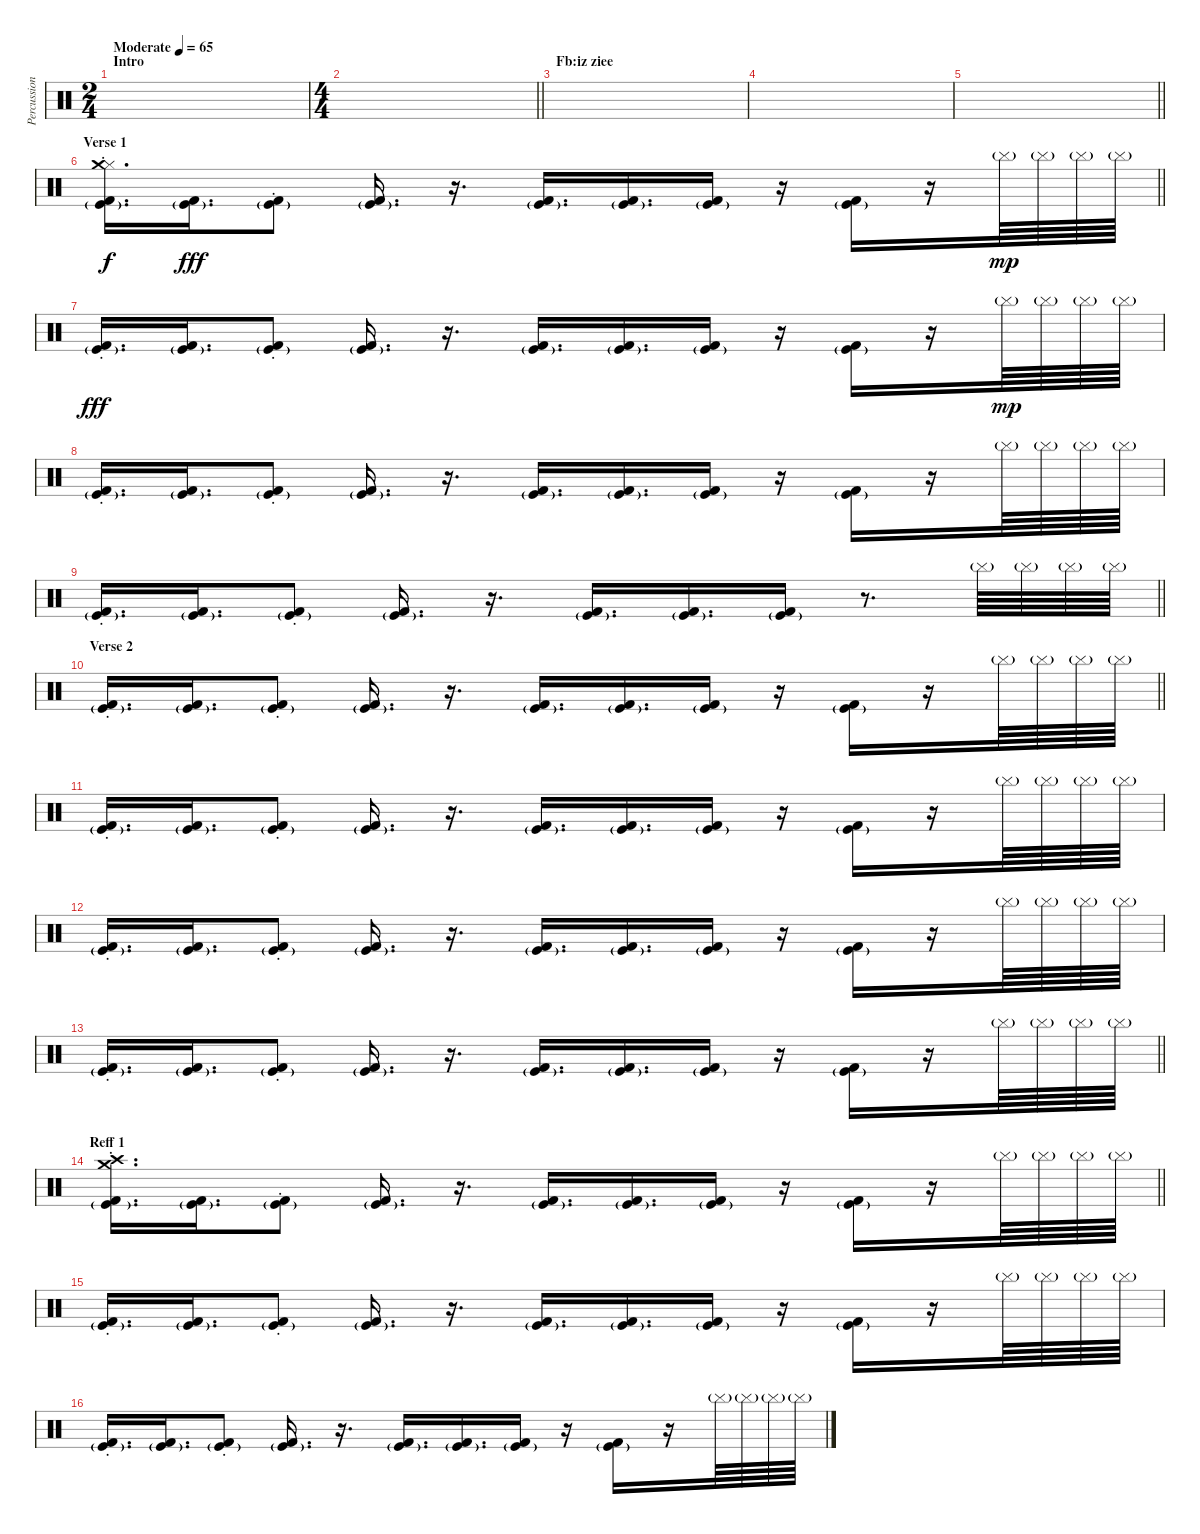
\track ("Percussion 1 (Bass)" "Percussion") {instrument percussion}
\staff {score}
\articulation defaults
\ts (2 4)
\section ("" "Intro")
\tempo (65 "Moderate")
\clef neutral
\ks c
|
\ts (4 4)
\barLineRight lightlight
|
\section ("" "Fb:iz ziee")
|
|
\barLineRight lightlight
|
\section ("" "Verse 1")
\barLineRight lightlight
("Hi-Hat (closed)" "Kick (hit)"{g st} "Kick (hit) 2" "Crash medium (hit)").16{d} ("Kick (hit)"{g} "Kick (hit) 2").16{d dy fff} ("Kick (hit)"{g} "Kick (hit) 2"{st}).8 ("Kick (hit)"{g} "Kick (hit) 2").16{d} r.16{d} ("Kick (hit)"{g} "Kick (hit) 2").16{d} ("Kick (hit)"{g} "Kick (hit) 2").16{d} ("Kick (hit)"{g} "Kick (hit) 2").16 r.16 ("Kick (hit)"{g} "Kick (hit) 2").16 r.16 "Cymbal (hit)"{g}.64{dy mp} "Cymbal (hit)"{g}.64 "Cymbal (hit)"{g}.64 "Cymbal (hit)"{g}.64 |
("Kick (hit)"{g st} "Kick (hit) 2").16{d dy fff} ("Kick (hit)"{g} "Kick (hit) 2").16{d} ("Kick (hit)"{g} "Kick (hit) 2"{st}).8 ("Kick (hit)"{g} "Kick (hit) 2").16{d} r.16{d} ("Kick (hit)"{g} "Kick (hit) 2").16{d} ("Kick (hit)"{g} "Kick (hit) 2").16{d} ("Kick (hit)"{g} "Kick (hit) 2").16 r.16 ("Kick (hit)"{g} "Kick (hit) 2").16 r.16 "Cymbal (hit)"{g}.64{dy mp} "Cymbal (hit)"{g}.64 "Cymbal (hit)"{g}.64 "Cymbal (hit)"{g}.64 |
("Kick (hit)"{g st} "Kick (hit) 2").16{d} ("Kick (hit)"{g} "Kick (hit) 2").16{d} ("Kick (hit)"{g} "Kick (hit) 2"{st}).8 ("Kick (hit)"{g} "Kick (hit) 2").16{d} r.16{d} ("Kick (hit)"{g} "Kick (hit) 2").16{d} ("Kick (hit)"{g} "Kick (hit) 2").16{d} ("Kick (hit)"{g} "Kick (hit) 2").16 r.16 ("Kick (hit)"{g} "Kick (hit) 2").16 r.16 "Cymbal (hit)"{g}.64 "Cymbal (hit)"{g}.64 "Cymbal (hit)"{g}.64 "Cymbal (hit)"{g}.64 |
\barLineRight lightlight
("Kick (hit)"{g st} "Kick (hit) 2").16{d} ("Kick (hit)"{g} "Kick (hit) 2").16{d} ("Kick (hit)"{g} "Kick (hit) 2"{st}).8 ("Kick (hit)"{g} "Kick (hit) 2").16{d} r.16{d} ("Kick (hit)"{g} "Kick (hit) 2").16{d} ("Kick (hit)"{g} "Kick (hit) 2").16{d} ("Kick (hit)"{g} "Kick (hit) 2").16 r.8{d} "Cymbal (hit)"{g}.64 "Cymbal (hit)"{g}.64 "Cymbal (hit)"{g}.64 "Cymbal (hit)"{g}.64 |
\section ("" "Verse 2")
\barLineRight lightlight
("Kick (hit)"{g st} "Kick (hit) 2").16{d} ("Kick (hit)"{g} "Kick (hit) 2").16{d} ("Kick (hit)"{g} "Kick (hit) 2"{st}).8 ("Kick (hit)"{g} "Kick (hit) 2").16{d} r.16{d} ("Kick (hit)"{g} "Kick (hit) 2").16{d} ("Kick (hit)"{g} "Kick (hit) 2").16{d} ("Kick (hit)"{g} "Kick (hit) 2").16 r.16 ("Kick (hit)"{g} "Kick (hit) 2").16 r.16 "Cymbal (hit)"{g}.64 "Cymbal (hit)"{g}.64 "Cymbal (hit)"{g}.64 "Cymbal (hit)"{g}.64 |
("Kick (hit)"{g st} "Kick (hit) 2").16{d} ("Kick (hit)"{g} "Kick (hit) 2").16{d} ("Kick (hit)"{g} "Kick (hit) 2"{st}).8 ("Kick (hit)"{g} "Kick (hit) 2").16{d} r.16{d} ("Kick (hit)"{g} "Kick (hit) 2").16{d} ("Kick (hit)"{g} "Kick (hit) 2").16{d} ("Kick (hit)"{g} "Kick (hit) 2").16 r.16 ("Kick (hit)"{g} "Kick (hit) 2").16 r.16 "Cymbal (hit)"{g}.64 "Cymbal (hit)"{g}.64 "Cymbal (hit)"{g}.64 "Cymbal (hit)"{g}.64 |
("Kick (hit)"{g st} "Kick (hit) 2").16{d} ("Kick (hit)"{g} "Kick (hit) 2").16{d} ("Kick (hit)"{g} "Kick (hit) 2"{st}).8 ("Kick (hit)"{g} "Kick (hit) 2").16{d} r.16{d} ("Kick (hit)"{g} "Kick (hit) 2").16{d} ("Kick (hit)"{g} "Kick (hit) 2").16{d} ("Kick (hit)"{g} "Kick (hit) 2").16 r.16 ("Kick (hit)"{g} "Kick (hit) 2").16 r.16 "Cymbal (hit)"{g}.64 "Cymbal (hit)"{g}.64 "Cymbal (hit)"{g}.64 "Cymbal (hit)"{g}.64 |
\barLineRight lightlight
("Kick (hit)"{g st} "Kick (hit) 2").16{d} ("Kick (hit)"{g} "Kick (hit) 2").16{d} ("Kick (hit)"{g} "Kick (hit) 2"{st}).8 ("Kick (hit)"{g} "Kick (hit) 2").16{d} r.16{d} ("Kick (hit)"{g} "Kick (hit) 2").16{d} ("Kick (hit)"{g} "Kick (hit) 2").16{d} ("Kick (hit)"{g} "Kick (hit) 2").16 r.16 ("Kick (hit)"{g} "Kick (hit) 2").16 r.16 "Cymbal (hit)"{g}.64 "Cymbal (hit)"{g}.64 "Cymbal (hit)"{g}.64 "Cymbal (hit)"{g}.64 |
\section ("" "Reff 1")
\barLineRight lightlight
("Crash medium (hit)" "Kick (hit)"{g st} "Kick (hit) 2" "Crash high (hit)").16{d} ("Kick (hit)"{g} "Kick (hit) 2").16{d} ("Kick (hit)"{g} "Kick (hit) 2"{st}).8 ("Kick (hit)"{g} "Kick (hit) 2").16{d} r.16{d} ("Kick (hit)"{g} "Kick (hit) 2").16{d} ("Kick (hit)"{g} "Kick (hit) 2").16{d} ("Kick (hit)"{g} "Kick (hit) 2").16 r.16 ("Kick (hit)"{g} "Kick (hit) 2").16 r.16 "Cymbal (hit)"{g}.64 "Cymbal (hit)"{g}.64 "Cymbal (hit)"{g}.64 "Cymbal (hit)"{g}.64 |
("Kick (hit)"{g st} "Kick (hit) 2").16{d} ("Kick (hit)"{g} "Kick (hit) 2").16{d} ("Kick (hit)"{g} "Kick (hit) 2"{st}).8 ("Kick (hit)"{g} "Kick (hit) 2").16{d} r.16{d} ("Kick (hit)"{g} "Kick (hit) 2").16{d} ("Kick (hit)"{g} "Kick (hit) 2").16{d} ("Kick (hit)"{g} "Kick (hit) 2").16 r.16 ("Kick (hit)"{g} "Kick (hit) 2").16 r.16 "Cymbal (hit)"{g}.64 "Cymbal (hit)"{g}.64 "Cymbal (hit)"{g}.64 "Cymbal (hit)"{g}.64 |
("Kick (hit)"{g st} "Kick (hit) 2").16{d} ("Kick (hit)"{g} "Kick (hit) 2").16{d} ("Kick (hit)"{g} "Kick (hit) 2"{st}).8 ("Kick (hit)"{g} "Kick (hit) 2").16{d} r.16{d} ("Kick (hit)"{g} "Kick (hit) 2").16{d} ("Kick (hit)"{g} "Kick (hit) 2").16{d} ("Kick (hit)"{g} "Kick (hit) 2").16 r.16 ("Kick (hit)"{g} "Kick (hit) 2").16 r.16 "Cymbal (hit)"{g}.64 "Cymbal (hit)"{g}.64 "Cymbal (hit)"{g}.64 "Cymbal (hit)"{g}.64
